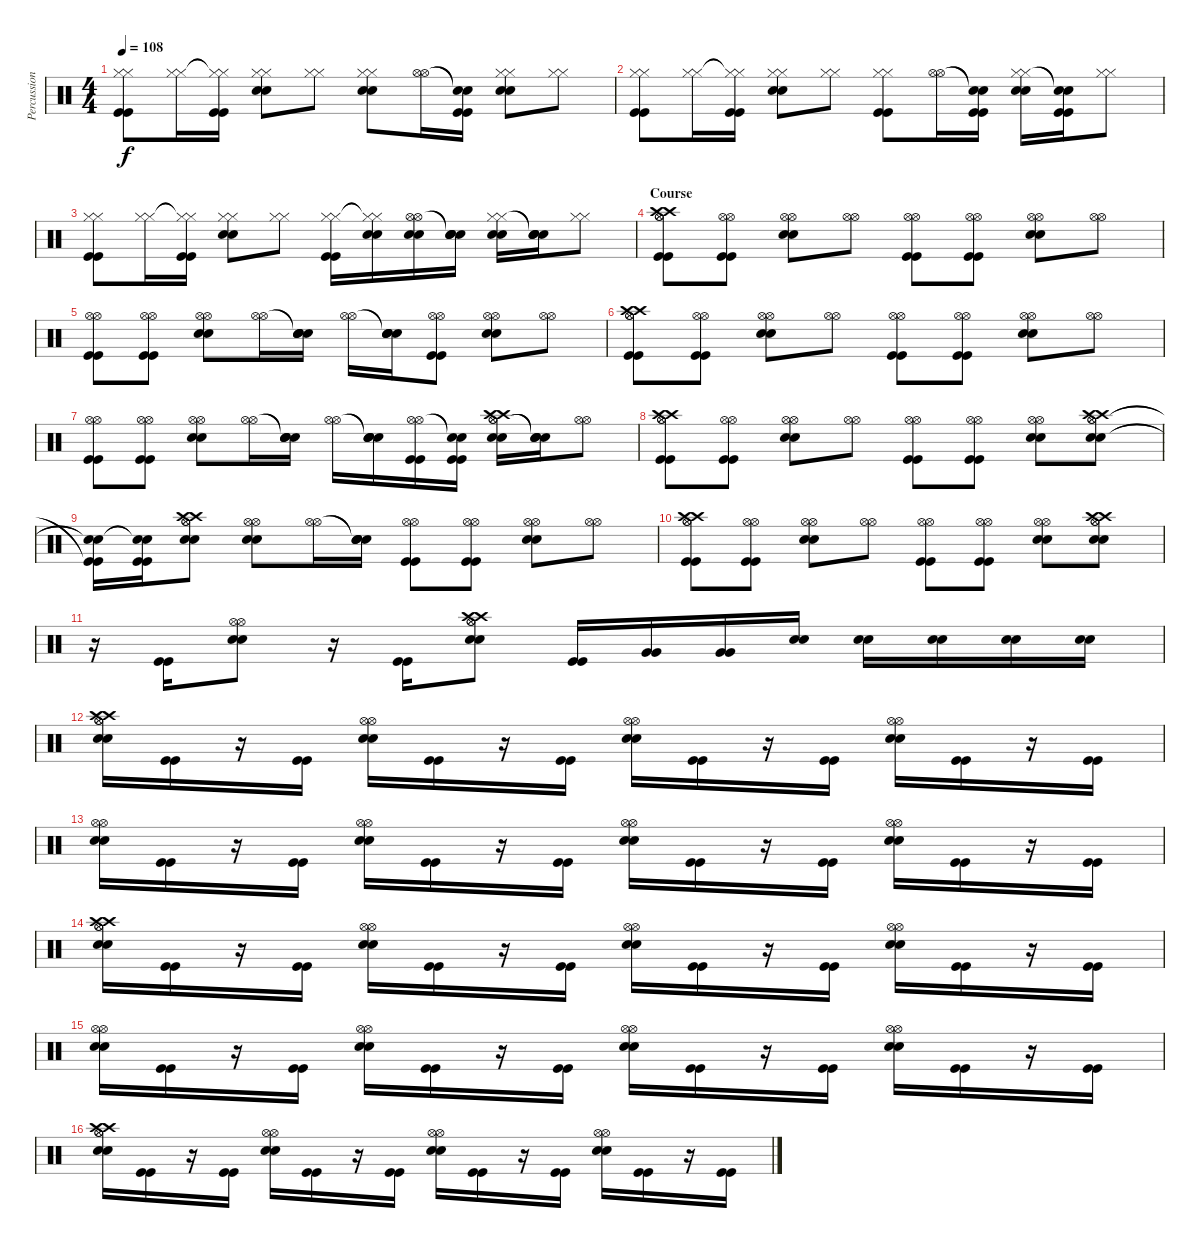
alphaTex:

\track ("Percussion" "Percussion") {instrument percussion}
\staff {score}
\articulation defaults
\ts (4 4)
\tempo 108
\clef neutral
\ks c
("Hi-Hat (closed)" "Hi-Hat (closed)" "Kick (hit)" "Kick (hit)").8{dy f} ("Hi-Hat (closed)" "Hi-Hat (closed)").16 ("Hi-Hat (closed)"{t} "Hi-Hat (closed)"{t} "Kick (hit)" "Kick (hit)").16 ("Hi-Hat (closed)" "Hi-Hat (closed)" "Electric Snare (hit)" "Electric Snare (hit)").8 ("Hi-Hat (closed)" "Hi-Hat (closed)").8 ("Hi-Hat (closed)" "Hi-Hat (closed)" "Electric Snare (hit)" "Electric Snare (hit)").8 ("Hi-Hat (open)" "Hi-Hat (open)").16 ("Snare (hit)"{t} "Snare (hit)"{t} "Kick (hit)" "Kick (hit)").16 ("Hi-Hat (closed)" "Hi-Hat (closed)" "Electric Snare (hit)" "Electric Snare (hit)").8 ("Hi-Hat (closed)" "Hi-Hat (closed)").8 |
("Hi-Hat (closed)" "Hi-Hat (closed)" "Kick (hit)" "Kick (hit)").8 ("Hi-Hat (closed)" "Hi-Hat (closed)").16 ("Hi-Hat (closed)"{t} "Hi-Hat (closed)"{t} "Kick (hit)" "Kick (hit)").16 ("Hi-Hat (closed)" "Hi-Hat (closed)" "Electric Snare (hit)" "Electric Snare (hit)").8 ("Hi-Hat (closed)" "Hi-Hat (closed)").8 ("Hi-Hat (closed)" "Hi-Hat (closed)" "Kick (hit)" "Kick (hit)").8 ("Hi-Hat (open)" "Hi-Hat (open)").16 ("Snare (hit)"{t} "Snare (hit)"{t} "Kick (hit)" "Kick (hit)").16 ("Hi-Hat (closed)" "Hi-Hat (closed)" "Electric Snare (hit)" "Electric Snare (hit)").16 ("Snare (hit)"{t} "Snare (hit)"{t} "Kick (hit)" "Kick (hit)").16 ("Hi-Hat (closed)" "Hi-Hat (closed)").8 |
("Hi-Hat (closed)" "Hi-Hat (closed)" "Kick (hit)" "Kick (hit)").8 ("Hi-Hat (closed)" "Hi-Hat (closed)").16 ("Hi-Hat (closed)"{t} "Hi-Hat (closed)"{t} "Kick (hit)" "Kick (hit)").16 ("Hi-Hat (closed)" "Hi-Hat (closed)" "Electric Snare (hit)" "Electric Snare (hit)").8 ("Hi-Hat (closed)" "Hi-Hat (closed)").8 ("Hi-Hat (closed)" "Hi-Hat (closed)" "Kick (hit)" "Kick (hit)").16 ("Hi-Hat (closed)"{t} "Hi-Hat (closed)"{t} "Electric Snare (hit)" "Electric Snare (hit)").16 ("Hi-Hat (open)" "Hi-Hat (open)" "Electric Snare (hit)" "Electric Snare (hit)").16 ("Snare (hit)"{t} "Snare (hit)"{t} "Electric Snare (hit)" "Electric Snare (hit)").16 ("Hi-Hat (closed)" "Hi-Hat (closed)" "Electric Snare (hit)" "Electric Snare (hit)").16 ("Snare (hit)"{t} "Snare (hit)"{t} "Electric Snare (hit)" "Electric Snare (hit)").16 ("Hi-Hat (closed)" "Hi-Hat (closed)").8 |
\section ("" "Course")
("Hi-Hat (open)" "Hi-Hat (open)" "Kick (hit)" "Kick (hit)" "Crash high (hit)" "Crash high (hit)").8 ("Hi-Hat (open)" "Hi-Hat (open)" "Kick (hit)" "Kick (hit)").8 ("Hi-Hat (open)" "Hi-Hat (open)" "Electric Snare (hit)" "Electric Snare (hit)").8 ("Hi-Hat (open)" "Hi-Hat (open)").8 ("Hi-Hat (open)" "Hi-Hat (open)" "Kick (hit)" "Kick (hit)").8 ("Hi-Hat (open)" "Hi-Hat (open)" "Kick (hit)" "Kick (hit)").8 ("Hi-Hat (open)" "Hi-Hat (open)" "Electric Snare (hit)" "Electric Snare (hit)").8 ("Hi-Hat (open)" "Hi-Hat (open)").8 |
("Hi-Hat (open)" "Hi-Hat (open)" "Kick (hit)" "Kick (hit)").8 ("Hi-Hat (open)" "Hi-Hat (open)" "Kick (hit)" "Kick (hit)").8 ("Hi-Hat (open)" "Hi-Hat (open)" "Electric Snare (hit)" "Electric Snare (hit)").8 ("Hi-Hat (open)" "Hi-Hat (open)").16 ("Snare (hit)"{t} "Snare (hit)"{t} "Electric Snare (hit)" "Electric Snare (hit)").16 ("Hi-Hat (open)" "Hi-Hat (open)").16 ("Snare (hit)"{t} "Snare (hit)"{t} "Electric Snare (hit)" "Electric Snare (hit)").16 ("Hi-Hat (open)" "Hi-Hat (open)" "Kick (hit)" "Kick (hit)").8 ("Hi-Hat (open)" "Hi-Hat (open)" "Electric Snare (hit)" "Electric Snare (hit)").8 ("Hi-Hat (open)" "Hi-Hat (open)").8 |
("Hi-Hat (open)" "Hi-Hat (open)" "Kick (hit)" "Kick (hit)" "Crash high (hit)" "Crash high (hit)").8 ("Hi-Hat (open)" "Hi-Hat (open)" "Kick (hit)" "Kick (hit)").8 ("Hi-Hat (open)" "Hi-Hat (open)" "Electric Snare (hit)" "Electric Snare (hit)").8 ("Hi-Hat (open)" "Hi-Hat (open)").8 ("Hi-Hat (open)" "Hi-Hat (open)" "Kick (hit)" "Kick (hit)").8 ("Hi-Hat (open)" "Hi-Hat (open)" "Kick (hit)" "Kick (hit)").8 ("Hi-Hat (open)" "Hi-Hat (open)" "Electric Snare (hit)" "Electric Snare (hit)").8 ("Hi-Hat (open)" "Hi-Hat (open)").8 |
("Hi-Hat (open)" "Hi-Hat (open)" "Kick (hit)" "Kick (hit)").8 ("Hi-Hat (open)" "Hi-Hat (open)" "Kick (hit)" "Kick (hit)").8 ("Hi-Hat (open)" "Hi-Hat (open)" "Electric Snare (hit)" "Electric Snare (hit)").8 ("Hi-Hat (open)" "Hi-Hat (open)").16 ("Snare (hit)"{t} "Snare (hit)"{t} "Electric Snare (hit)" "Electric Snare (hit)").16 ("Hi-Hat (open)" "Hi-Hat (open)").16 ("Snare (hit)"{t} "Snare (hit)"{t} "Electric Snare (hit)" "Electric Snare (hit)").16 ("Hi-Hat (open)" "Hi-Hat (open)" "Kick (hit)" "Kick (hit)").16 ("Snare (hit)"{t} "Snare (hit)"{t} "Kick (hit)" "Kick (hit)").16 ("Hi-Hat (open)" "Hi-Hat (open)" "Electric Snare (hit)" "Electric Snare (hit)" "Crash high (hit)" "Crash high (hit)").16 ("Snare (hit)"{t} "Snare (hit)"{t} "Electric Snare (hit)" "Electric Snare (hit)").16 ("Hi-Hat (open)" "Hi-Hat (open)").8 |
("Hi-Hat (open)" "Hi-Hat (open)" "Kick (hit)" "Kick (hit)" "Crash high (hit)" "Crash high (hit)").8 ("Hi-Hat (open)" "Hi-Hat (open)" "Kick (hit)" "Kick (hit)").8 ("Hi-Hat (open)" "Hi-Hat (open)" "Electric Snare (hit)" "Electric Snare (hit)").8 ("Hi-Hat (open)" "Hi-Hat (open)").8 ("Hi-Hat (open)" "Hi-Hat (open)" "Kick (hit)" "Kick (hit)").8 ("Hi-Hat (open)" "Hi-Hat (open)" "Kick (hit)" "Kick (hit)").8 ("Hi-Hat (open)" "Hi-Hat (open)" "Electric Snare (hit)" "Electric Snare (hit)").8 ("Hi-Hat (open)" "Hi-Hat (open)" "Electric Snare (hit)" "Electric Snare (hit)" "Crash high (hit)" "Crash high (hit)").8 |
("Kick (hit)"{t} "Kick (hit)"{t} "Snare (hit)"{t} "Snare (hit)"{t}).16 ("Kick (hit)" "Kick (hit)" "Snare (hit)"{t} "Snare (hit)"{t}).16 ("Hi-Hat (open)" "Hi-Hat (open)" "Electric Snare (hit)" "Electric Snare (hit)" "Crash high (hit)" "Crash high (hit)").8 ("Hi-Hat (open)" "Hi-Hat (open)" "Electric Snare (hit)" "Electric Snare (hit)").8 ("Hi-Hat (open)" "Hi-Hat (open)").16 ("Snare (hit)"{t} "Snare (hit)"{t} "Electric Snare (hit)" "Electric Snare (hit)").16 ("Hi-Hat (open)" "Hi-Hat (open)" "Kick (hit)" "Kick (hit)").8 ("Hi-Hat (open)" "Hi-Hat (open)" "Kick (hit)" "Kick (hit)").8 ("Hi-Hat (open)" "Hi-Hat (open)" "Electric Snare (hit)" "Electric Snare (hit)").8 ("Hi-Hat (open)" "Hi-Hat (open)").8 |
("Hi-Hat (open)" "Hi-Hat (open)" "Kick (hit)" "Kick (hit)" "Crash high (hit)" "Crash high (hit)").8 ("Hi-Hat (open)" "Hi-Hat (open)" "Kick (hit)" "Kick (hit)").8 ("Hi-Hat (open)" "Hi-Hat (open)" "Electric Snare (hit)" "Electric Snare (hit)").8 ("Hi-Hat (open)" "Hi-Hat (open)").8 ("Hi-Hat (open)" "Hi-Hat (open)" "Kick (hit)" "Kick (hit)").8 ("Hi-Hat (open)" "Hi-Hat (open)" "Kick (hit)" "Kick (hit)").8 ("Hi-Hat (open)" "Hi-Hat (open)" "Electric Snare (hit)" "Electric Snare (hit)").8 ("Hi-Hat (open)" "Hi-Hat (open)" "Electric Snare (hit)" "Electric Snare (hit)" "Crash high (hit)" "Crash high (hit)").8 |
r.16 ("Kick (hit)" "Kick (hit)").16 ("Hi-Hat (open)" "Hi-Hat (open)" "Electric Snare (hit)" "Electric Snare (hit)").8 r.16 ("Kick (hit)" "Kick (hit)").16 ("Hi-Hat (open)" "Hi-Hat (open)" "Electric Snare (hit)" "Electric Snare (hit)" "Crash high (hit)" "Crash high (hit)").8 ("Kick (hit)" "Kick (hit)").16 ("Very Low Tom (hit)" "Very Low Tom (hit)").16 ("Very Low Tom (hit)" "Very Low Tom (hit)").16 ("Electric Snare (hit)" "Electric Snare (hit)").16 ("Electric Snare (hit)" "Electric Snare (hit)").16 ("Electric Snare (hit)" "Electric Snare (hit)").16 ("Electric Snare (hit)" "Electric Snare (hit)").16 ("Electric Snare (hit)" "Electric Snare (hit)").16 |
("Hi-Hat (open)" "Hi-Hat (open)" "Electric Snare (hit)" "Electric Snare (hit)" "Crash high (hit)" "Crash high (hit)").16 ("Kick (hit)" "Kick (hit)").16 r.16 ("Kick (hit)" "Kick (hit)").16 ("Hi-Hat (open)" "Hi-Hat (open)" "Electric Snare (hit)" "Electric Snare (hit)").16 ("Kick (hit)" "Kick (hit)").16 r.16 ("Kick (hit)" "Kick (hit)").16 ("Hi-Hat (open)" "Hi-Hat (open)" "Electric Snare (hit)" "Electric Snare (hit)").16 ("Kick (hit)" "Kick (hit)").16 r.16 ("Kick (hit)" "Kick (hit)").16 ("Hi-Hat (open)" "Hi-Hat (open)" "Electric Snare (hit)" "Electric Snare (hit)").16 ("Kick (hit)" "Kick (hit)").16 r.16 ("Kick (hit)" "Kick (hit)").16 |
("Hi-Hat (open)" "Hi-Hat (open)" "Electric Snare (hit)" "Electric Snare (hit)").16 ("Kick (hit)" "Kick (hit)").16 r.16 ("Kick (hit)" "Kick (hit)").16 ("Hi-Hat (open)" "Hi-Hat (open)" "Electric Snare (hit)" "Electric Snare (hit)").16 ("Kick (hit)" "Kick (hit)").16 r.16 ("Kick (hit)" "Kick (hit)").16 ("Hi-Hat (open)" "Hi-Hat (open)" "Electric Snare (hit)" "Electric Snare (hit)").16 ("Kick (hit)" "Kick (hit)").16 r.16 ("Kick (hit)" "Kick (hit)").16 ("Hi-Hat (open)" "Hi-Hat (open)" "Electric Snare (hit)" "Electric Snare (hit)").16 ("Kick (hit)" "Kick (hit)").16 r.16 ("Kick (hit)" "Kick (hit)").16 |
("Hi-Hat (open)" "Hi-Hat (open)" "Electric Snare (hit)" "Electric Snare (hit)" "Crash high (hit)" "Crash high (hit)").16 ("Kick (hit)" "Kick (hit)").16 r.16 ("Kick (hit)" "Kick (hit)").16 ("Hi-Hat (open)" "Hi-Hat (open)" "Electric Snare (hit)" "Electric Snare (hit)").16 ("Kick (hit)" "Kick (hit)").16 r.16 ("Kick (hit)" "Kick (hit)").16 ("Hi-Hat (open)" "Hi-Hat (open)" "Electric Snare (hit)" "Electric Snare (hit)").16 ("Kick (hit)" "Kick (hit)").16 r.16 ("Kick (hit)" "Kick (hit)").16 ("Hi-Hat (open)" "Hi-Hat (open)" "Electric Snare (hit)" "Electric Snare (hit)").16 ("Kick (hit)" "Kick (hit)").16 r.16 ("Kick (hit)" "Kick (hit)").16 |
("Hi-Hat (open)" "Hi-Hat (open)" "Electric Snare (hit)" "Electric Snare (hit)").16 ("Kick (hit)" "Kick (hit)").16 r.16 ("Kick (hit)" "Kick (hit)").16 ("Hi-Hat (open)" "Hi-Hat (open)" "Electric Snare (hit)" "Electric Snare (hit)").16 ("Kick (hit)" "Kick (hit)").16 r.16 ("Kick (hit)" "Kick (hit)").16 ("Hi-Hat (open)" "Hi-Hat (open)" "Electric Snare (hit)" "Electric Snare (hit)").16 ("Kick (hit)" "Kick (hit)").16 r.16 ("Kick (hit)" "Kick (hit)").16 ("Hi-Hat (open)" "Hi-Hat (open)" "Electric Snare (hit)" "Electric Snare (hit)").16 ("Kick (hit)" "Kick (hit)").16 r.16 ("Kick (hit)" "Kick (hit)").16 |
("Hi-Hat (open)" "Hi-Hat (open)" "Electric Snare (hit)" "Electric Snare (hit)" "Crash high (hit)" "Crash high (hit)").16 ("Kick (hit)" "Kick (hit)").16 r.16 ("Kick (hit)" "Kick (hit)").16 ("Hi-Hat (open)" "Hi-Hat (open)" "Electric Snare (hit)" "Electric Snare (hit)").16 ("Kick (hit)" "Kick (hit)").16 r.16 ("Kick (hit)" "Kick (hit)").16 ("Hi-Hat (open)" "Hi-Hat (open)" "Electric Snare (hit)" "Electric Snare (hit)").16 ("Kick (hit)" "Kick (hit)").16 r.16 ("Kick (hit)" "Kick (hit)").16 ("Hi-Hat (open)" "Hi-Hat (open)" "Electric Snare (hit)" "Electric Snare (hit)").16 ("Kick (hit)" "Kick (hit)").16 r.16 ("Kick (hit)" "Kick (hit)").16
